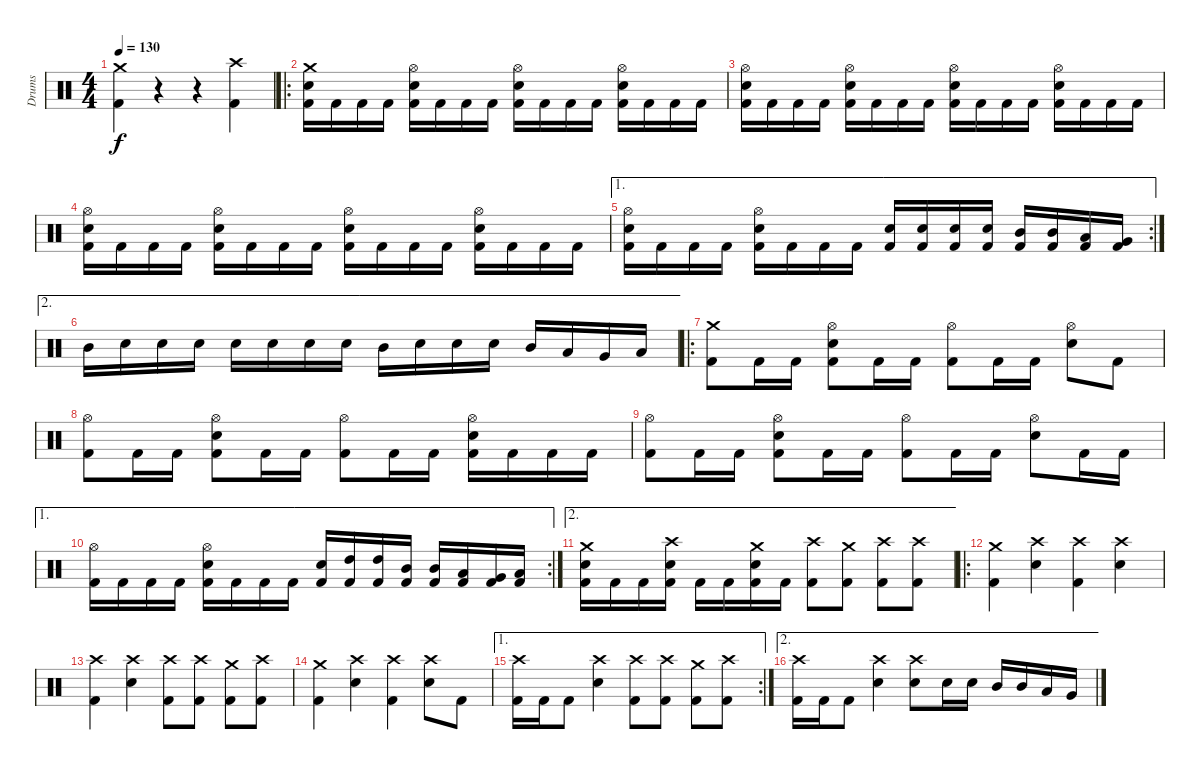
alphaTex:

\track ("Drums" "Drums") {instrument percussion}
\staff {score}
\articulation defaults
\ts (4 4)
\tempo 130
\clef neutral
\ks c
("Crash medium (hit)" "Kick (hit) 2").4{dy f} r.4 r.4 ("Crash high (hit)" "Kick (hit) 2").4 |
\ro
("Crash medium (hit)" "Electric Snare (hit)" "Kick (hit) 2").16 "Kick (hit) 2".16 "Kick (hit) 2".16 "Kick (hit) 2".16 ("Hi-Hat (open)" "Electric Snare (hit)" "Kick (hit) 2").16 "Kick (hit) 2".16 "Kick (hit) 2".16 "Kick (hit) 2".16 ("Hi-Hat (open)" "Electric Snare (hit)" "Kick (hit) 2").16 "Kick (hit) 2".16 "Kick (hit) 2".16 "Kick (hit) 2".16 ("Hi-Hat (open)" "Electric Snare (hit)" "Kick (hit) 2").16 "Kick (hit) 2".16 "Kick (hit) 2".16 "Kick (hit) 2".16 |
("Hi-Hat (open)" "Electric Snare (hit)" "Kick (hit) 2").16 "Kick (hit) 2".16 "Kick (hit) 2".16 "Kick (hit) 2".16 ("Hi-Hat (open)" "Electric Snare (hit)" "Kick (hit) 2").16 "Kick (hit) 2".16 "Kick (hit) 2".16 "Kick (hit) 2".16 ("Hi-Hat (open)" "Electric Snare (hit)" "Kick (hit) 2").16 "Kick (hit) 2".16 "Kick (hit) 2".16 "Kick (hit) 2".16 ("Hi-Hat (open)" "Electric Snare (hit)" "Kick (hit) 2").16 "Kick (hit) 2".16 "Kick (hit) 2".16 "Kick (hit) 2".16 |
("Hi-Hat (open)" "Electric Snare (hit)" "Kick (hit) 2").16 "Kick (hit) 2".16 "Kick (hit) 2".16 "Kick (hit) 2".16 ("Hi-Hat (open)" "Electric Snare (hit)" "Kick (hit) 2").16 "Kick (hit) 2".16 "Kick (hit) 2".16 "Kick (hit) 2".16 ("Hi-Hat (open)" "Electric Snare (hit)" "Kick (hit) 2").16 "Kick (hit) 2".16 "Kick (hit) 2".16 "Kick (hit) 2".16 ("Hi-Hat (open)" "Electric Snare (hit)" "Kick (hit) 2").16 "Kick (hit) 2".16 "Kick (hit) 2".16 "Kick (hit) 2".16 |
\ae 1
\rc 2
("Hi-Hat (open)" "Electric Snare (hit)" "Kick (hit) 2").16 "Kick (hit) 2".16 "Kick (hit) 2".16 "Kick (hit) 2".16 ("Hi-Hat (open)" "Electric Snare (hit)" "Kick (hit) 2").16 "Kick (hit) 2".16 "Kick (hit) 2".16 "Kick (hit) 2".16 ("Electric Snare (hit)" "Kick (hit) 2").16 ("Electric Snare (hit)" "Kick (hit) 2").16 ("Electric Snare (hit)" "Kick (hit) 2").16 ("Electric Snare (hit)" "Kick (hit) 2").16 ("Mid Tom (hit)" "Kick (hit) 2").16 ("Mid Tom (hit)" "Kick (hit) 2").16 ("Low Tom (hit)" "Kick (hit) 2").16 ("Very Low Tom (hit)" "Kick (hit) 2").16 |
\ae 2 "Mid Tom (hit)".16 "Electric Snare (hit)".16 "Electric Snare (hit)".16 "Electric Snare (hit)".16 "Electric Snare (hit)".16 "Electric Snare (hit)".16 "Electric Snare (hit)".16 "Electric Snare (hit)".16 "Mid Tom (hit)".16 "Electric Snare (hit)".16 "Electric Snare (hit)".16 "Electric Snare (hit)".16 "Mid Tom (hit)".16 "Low Tom (hit)".16 "Very Low Tom (hit)".16 "Low Floor Tom (hit)".16
|
\ro
("Crash medium (hit)" "Kick (hit) 2").8 "Kick (hit) 2".16 "Kick (hit) 2".16 ("Hi-Hat (open)" "Electric Snare (hit)" "Kick (hit) 2").8 "Kick (hit) 2".16 "Kick (hit) 2".16 ("Hi-Hat (open)" "Kick (hit) 2").8 "Kick (hit) 2".16 "Kick (hit) 2".16 ("Hi-Hat (open)" "Electric Snare (hit)").8 "Kick (hit) 2".8 |
("Hi-Hat (open)" "Kick (hit) 2").8 "Kick (hit) 2".16 "Kick (hit) 2".16 ("Hi-Hat (open)" "Electric Snare (hit)" "Kick (hit) 2").8 "Kick (hit) 2".16 "Kick (hit) 2".16 ("Hi-Hat (open)" "Kick (hit) 2").8 "Kick (hit) 2".16 "Kick (hit) 2".16 ("Hi-Hat (open)" "Electric Snare (hit)" "Kick (hit) 2").16 "Kick (hit) 2".16 "Kick (hit) 2".16 "Kick (hit) 2".16 |
("Hi-Hat (open)" "Kick (hit) 2").8 "Kick (hit) 2".16 "Kick (hit) 2".16 ("Hi-Hat (open)" "Electric Snare (hit)" "Kick (hit) 2").8 "Kick (hit) 2".16 "Kick (hit) 2".16 ("Hi-Hat (open)" "Kick (hit) 2").8 "Kick (hit) 2".16 "Kick (hit) 2".16 ("Hi-Hat (open)" "Electric Snare (hit)").8 "Kick (hit) 2".16 "Kick (hit) 2".16 |
\ae 1
\rc 2
("Hi-Hat (open)" "Kick (hit) 2").16 "Kick (hit) 2".16 "Kick (hit) 2".16 "Kick (hit) 2".16 ("Hi-Hat (open)" "Electric Snare (hit)" "Kick (hit) 2").16 "Kick (hit) 2".16 "Kick (hit) 2".16 "Kick (hit) 2".16 ("Electric Snare (hit)" "Kick (hit) 2").16 ("High Tom (hit)" "Kick (hit) 2").16 ("High Tom (hit)" "Kick (hit) 2").16 ("Mid Tom (hit)" "Kick (hit) 2").16 ("Mid Tom (hit)" "Kick (hit) 2").16 ("Low Tom (hit)" "Kick (hit) 2").16 ("Very Low Tom (hit)" "Kick (hit) 2").16 ("Low Floor Tom (hit)" "Kick (hit) 2").16 |
\ae 2
("Crash medium (hit)" "Electric Snare (hit)" "Kick (hit) 2").16 "Kick (hit) 2".16 "Kick (hit) 2".16 ("Crash high (hit)" "Electric Snare (hit)" "Kick (hit) 2").16 "Kick (hit) 2".16 "Kick (hit) 2".16 ("Crash medium (hit)" "Electric Snare (hit)" "Kick (hit) 2").16 "Kick (hit) 2".16 ("Crash high (hit)" "Kick (hit) 2").8 ("Crash medium (hit)" "Kick (hit) 2").8 ("Crash high (hit)" "Kick (hit) 2").8 ("Crash high (hit)" "Kick (hit) 2").8 |
\ro
("Crash medium (hit)" "Kick (hit) 2").4 ("Crash high (hit)" "Electric Snare (hit)").4 ("Crash high (hit)" "Kick (hit) 2").4 ("Crash high (hit)" "Electric Snare (hit)").4 |
("Crash high (hit)" "Kick (hit) 2").4 ("Crash high (hit)" "Electric Snare (hit)").4 ("Crash high (hit)" "Kick (hit) 2").8 ("Crash high (hit)" "Kick (hit) 2").8 ("Crash medium (hit)" "Kick (hit) 2").8 ("Crash high (hit)" "Kick (hit) 2").8 |
("Crash medium (hit)" "Kick (hit) 2").4 ("Crash high (hit)" "Electric Snare (hit)").4 ("Crash high (hit)" "Kick (hit) 2").4 ("Crash high (hit)" "Electric Snare (hit)").8 "Kick (hit) 2".8 |
\ae 1
\rc 2
("Crash high (hit)" "Kick (hit) 2").16 "Kick (hit) 2".16 "Kick (hit) 2".8 ("Crash high (hit)" "Electric Snare (hit)").4 ("Crash high (hit)" "Kick (hit) 2").8 ("Crash high (hit)" "Kick (hit) 2").8 ("Crash medium (hit)" "Kick (hit) 2").8 ("Crash high (hit)" "Kick (hit) 2").8 |
\ae 2
("Crash high (hit)" "Kick (hit) 2").16 "Kick (hit) 2".16 "Kick (hit) 2".8 ("Crash high (hit)" "Electric Snare (hit)").4 ("Crash high (hit)" "Electric Snare (hit)").8 "Electric Snare (hit)".16 "Electric Snare (hit)".16 "Mid Tom (hit)".16 "Mid Tom (hit)".16 "Low Tom (hit)".16 "Very Low Tom (hit)".16
